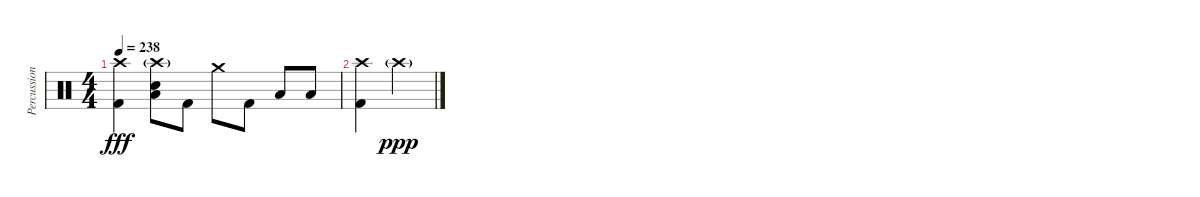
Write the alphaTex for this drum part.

\track ("Percussion" "Percussion") {instrument percussion}
\staff {score}
\articulation defaults
\ts (4 4)
\tempo 238
\clef neutral
\ks c
("Crash high (hit)" "Kick (hit) 2").4{dy fff} ("Crash high (hit)"{g} "Electric Snare (hit)" "Low Floor Tom (hit)").8 "Kick (hit) 2".8 "Crash medium (hit)".8 "Kick (hit) 2".8 "Low Tom (hit)".8 "Low Tom (hit)".8 |
("Crash high (hit)" "Kick (hit) 2").4 "Crash high (hit)"{g}.4{dy ppp}
